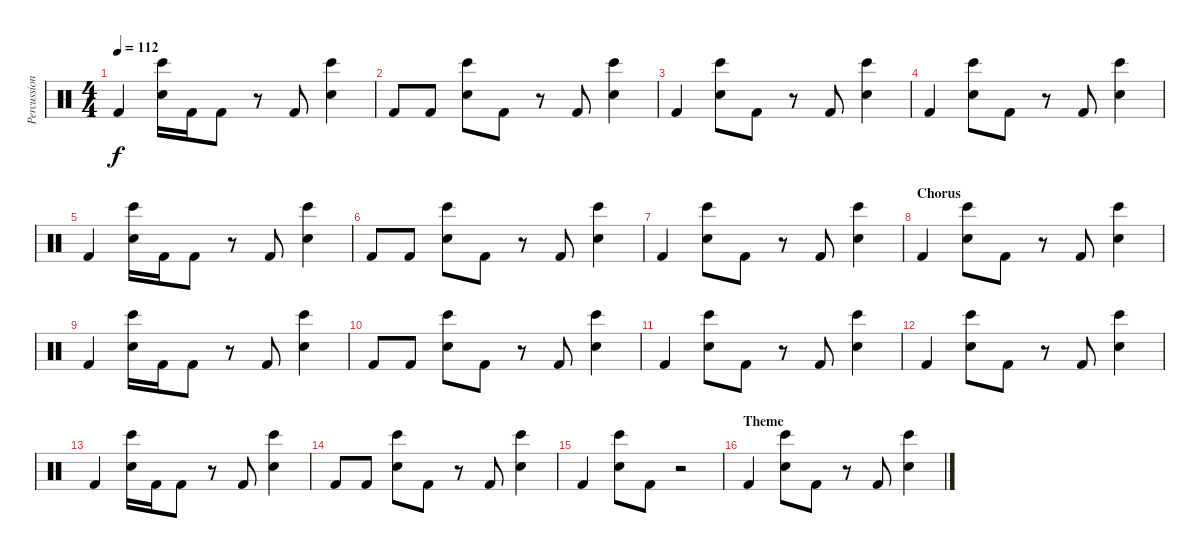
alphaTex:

\track ("Percussion" "Percussion") {instrument percussion}
\staff {score}
\articulation defaults
\ts (4 4)
\tempo 112
\clef neutral
\ks c "Kick (hit) 2".4{dy f}
("Bongo High (hit)" "Hand Clap (hit)").16 "Kick (hit) 2".16 "Kick (hit) 2".8 r.8 "Kick (hit) 2".8 ("Bongo High (hit)" "Hand Clap (hit)").4 |
"Kick (hit) 2".8 "Kick (hit) 2".8 ("Bongo High (hit)" "Hand Clap (hit)").8 "Kick (hit) 2".8 r.8 "Kick (hit) 2".8 ("Bongo High (hit)" "Hand Clap (hit)").4 |
"Kick (hit) 2".4 ("Bongo High (hit)" "Hand Clap (hit)").8 "Kick (hit) 2".8 r.8 "Kick (hit) 2".8 ("Bongo High (hit)" "Hand Clap (hit)").4 |
"Kick (hit) 2".4 ("Bongo High (hit)" "Hand Clap (hit)").8 "Kick (hit) 2".8 r.8 "Kick (hit) 2".8 ("Bongo High (hit)" "Hand Clap (hit)").4 |
"Kick (hit) 2".4 ("Bongo High (hit)" "Hand Clap (hit)").16 "Kick (hit) 2".16 "Kick (hit) 2".8 r.8 "Kick (hit) 2".8 ("Bongo High (hit)" "Hand Clap (hit)").4 |
"Kick (hit) 2".8 "Kick (hit) 2".8 ("Bongo High (hit)" "Hand Clap (hit)").8 "Kick (hit) 2".8 r.8 "Kick (hit) 2".8 ("Bongo High (hit)" "Hand Clap (hit)").4 |
"Kick (hit) 2".4 ("Bongo High (hit)" "Hand Clap (hit)").8 "Kick (hit) 2".8 r.8 "Kick (hit) 2".8 ("Bongo High (hit)" "Hand Clap (hit)").4 |
\section ("" "Chorus")
"Kick (hit) 2".4 ("Bongo High (hit)" "Hand Clap (hit)").8 "Kick (hit) 2".8 r.8 "Kick (hit) 2".8 ("Bongo High (hit)" "Hand Clap (hit)").4 |
"Kick (hit) 2".4 ("Bongo High (hit)" "Hand Clap (hit)").16 "Kick (hit) 2".16 "Kick (hit) 2".8 r.8 "Kick (hit) 2".8 ("Bongo High (hit)" "Hand Clap (hit)").4 |
"Kick (hit) 2".8 "Kick (hit) 2".8 ("Bongo High (hit)" "Hand Clap (hit)").8 "Kick (hit) 2".8 r.8 "Kick (hit) 2".8 ("Bongo High (hit)" "Hand Clap (hit)").4 |
"Kick (hit) 2".4 ("Bongo High (hit)" "Hand Clap (hit)").8 "Kick (hit) 2".8 r.8 "Kick (hit) 2".8 ("Bongo High (hit)" "Hand Clap (hit)").4 |
"Kick (hit) 2".4 ("Bongo High (hit)" "Hand Clap (hit)").8 "Kick (hit) 2".8 r.8 "Kick (hit) 2".8 ("Bongo High (hit)" "Hand Clap (hit)").4 |
"Kick (hit) 2".4 ("Bongo High (hit)" "Hand Clap (hit)").16 "Kick (hit) 2".16 "Kick (hit) 2".8 r.8 "Kick (hit) 2".8 ("Bongo High (hit)" "Hand Clap (hit)").4 |
"Kick (hit) 2".8 "Kick (hit) 2".8 ("Bongo High (hit)" "Hand Clap (hit)").8 "Kick (hit) 2".8 r.8 "Kick (hit) 2".8 ("Bongo High (hit)" "Hand Clap (hit)").4 |
"Kick (hit) 2".4 ("Bongo High (hit)" "Hand Clap (hit)").8 "Kick (hit) 2".8 r.2 |
\section ("" "Theme")
"Kick (hit) 2".4 ("Bongo High (hit)" "Hand Clap (hit)").8 "Kick (hit) 2".8 r.8 "Kick (hit) 2".8 ("Bongo High (hit)" "Hand Clap (hit)").4
